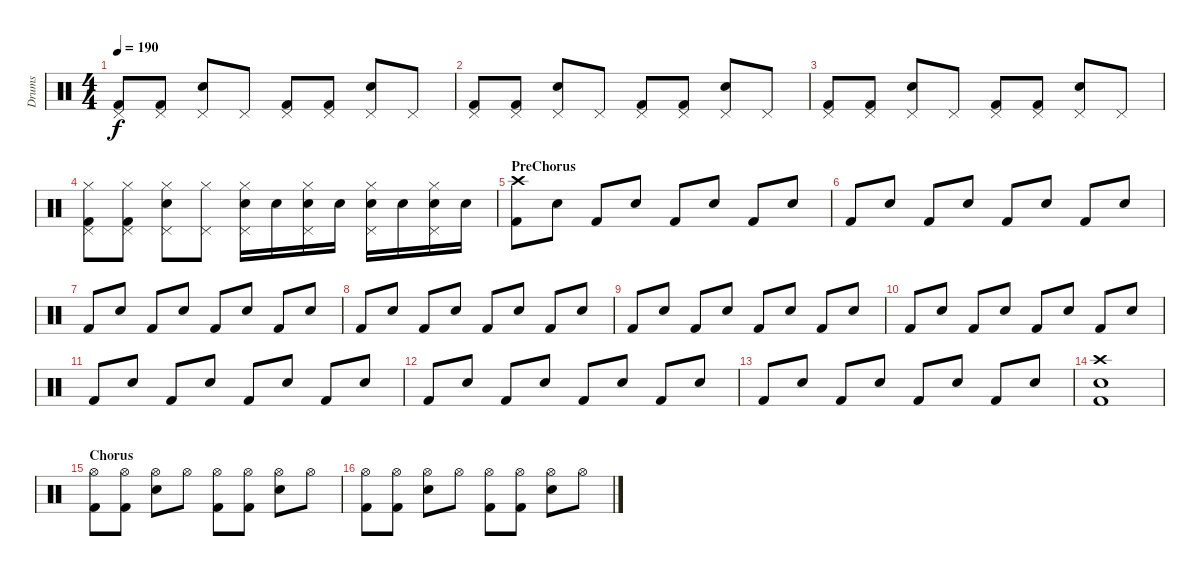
\track ("Drums" "Drums") {instrument percussion}
\staff {score}
\articulation defaults
\ts (4 4)
\tempo 190
\clef neutral
\ks c
("Pedal Hi-Hat (hit)" "Kick (hit) 2").8{dy f} ("Pedal Hi-Hat (hit)" "Kick (hit) 2").8 ("Pedal Hi-Hat (hit)" "Snare (hit) 2").8 "Pedal Hi-Hat (hit)".8 ("Pedal Hi-Hat (hit)" "Kick (hit) 2").8 ("Pedal Hi-Hat (hit)" "Kick (hit) 2").8 ("Pedal Hi-Hat (hit)" "Snare (hit) 2").8 "Pedal Hi-Hat (hit)".8 |
("Pedal Hi-Hat (hit)" "Kick (hit) 2").8 ("Pedal Hi-Hat (hit)" "Kick (hit) 2").8 ("Pedal Hi-Hat (hit)" "Snare (hit) 2").8 "Pedal Hi-Hat (hit)".8 ("Pedal Hi-Hat (hit)" "Kick (hit) 2").8 ("Pedal Hi-Hat (hit)" "Kick (hit) 2").8 ("Pedal Hi-Hat (hit)" "Snare (hit) 2").8 "Pedal Hi-Hat (hit)".8 |
("Pedal Hi-Hat (hit)" "Kick (hit) 2").8 ("Pedal Hi-Hat (hit)" "Kick (hit) 2").8 ("Pedal Hi-Hat (hit)" "Snare (hit) 2").8 "Pedal Hi-Hat (hit)".8 ("Pedal Hi-Hat (hit)" "Kick (hit) 2").8 ("Pedal Hi-Hat (hit)" "Kick (hit) 2").8 ("Pedal Hi-Hat (hit)" "Snare (hit) 2").8 "Pedal Hi-Hat (hit)".8 |
("Pedal Hi-Hat (hit)" "Hi-Hat (closed)" "Kick (hit) 2").8 ("Pedal Hi-Hat (hit)" "Hi-Hat (closed)" "Kick (hit) 2").8 ("Pedal Hi-Hat (hit)" "Hi-Hat (closed)" "Snare (hit) 2").8 ("Pedal Hi-Hat (hit)" "Hi-Hat (closed)").8 ("Pedal Hi-Hat (hit)" "Hi-Hat (closed)" "Snare (hit) 2").16 "Snare (hit) 2".16 ("Pedal Hi-Hat (hit)" "Hi-Hat (closed)" "Snare (hit) 2").16 "Snare (hit) 2".16 ("Pedal Hi-Hat (hit)" "Hi-Hat (closed)" "Snare (hit) 2").16 "Snare (hit) 2".16 ("Pedal Hi-Hat (hit)" "Hi-Hat (closed)" "Snare (hit) 2").16 "Snare (hit) 2".16 |
\section ("" "PreChorus")
("Crash high (hit)" "Kick (hit) 2").8 "Snare (hit) 2".8 "Kick (hit) 2".8 "Snare (hit) 2".8 "Kick (hit) 2".8 "Snare (hit) 2".8 "Kick (hit) 2".8 "Snare (hit) 2".8 |
"Kick (hit) 2".8 "Snare (hit) 2".8 "Kick (hit) 2".8 "Snare (hit) 2".8 "Kick (hit) 2".8 "Snare (hit) 2".8 "Kick (hit) 2".8 "Snare (hit) 2".8 |
"Kick (hit) 2".8 "Snare (hit) 2".8 "Kick (hit) 2".8 "Snare (hit) 2".8 "Kick (hit) 2".8 "Snare (hit) 2".8 "Kick (hit) 2".8 "Snare (hit) 2".8 |
"Kick (hit) 2".8 "Snare (hit) 2".8 "Kick (hit) 2".8 "Snare (hit) 2".8 "Kick (hit) 2".8 "Snare (hit) 2".8 "Kick (hit) 2".8 "Snare (hit) 2".8 |
"Kick (hit) 2".8 "Snare (hit) 2".8 "Kick (hit) 2".8 "Snare (hit) 2".8 "Kick (hit) 2".8 "Snare (hit) 2".8 "Kick (hit) 2".8 "Snare (hit) 2".8 |
"Kick (hit) 2".8 "Snare (hit) 2".8 "Kick (hit) 2".8 "Snare (hit) 2".8 "Kick (hit) 2".8 "Snare (hit) 2".8 "Kick (hit) 2".8 "Snare (hit) 2".8 |
"Kick (hit) 2".8 "Snare (hit) 2".8 "Kick (hit) 2".8 "Snare (hit) 2".8 "Kick (hit) 2".8 "Snare (hit) 2".8 "Kick (hit) 2".8 "Snare (hit) 2".8 |
"Kick (hit) 2".8 "Snare (hit) 2".8 "Kick (hit) 2".8 "Snare (hit) 2".8 "Kick (hit) 2".8 "Snare (hit) 2".8 "Kick (hit) 2".8 "Snare (hit) 2".8 |
"Kick (hit) 2".8 "Snare (hit) 2".8 "Kick (hit) 2".8 "Snare (hit) 2".8 "Kick (hit) 2".8 "Snare (hit) 2".8 "Kick (hit) 2".8 "Snare (hit) 2".8 |
("Crash high (hit)" "Snare (hit) 2" "Kick (hit) 2").1 |
\section ("" "Chorus")
("Hi-Hat (open)" "Kick (hit) 2").8 ("Hi-Hat (open)" "Kick (hit) 2").8 ("Hi-Hat (open)" "Snare (hit) 2").8 "Hi-Hat (open)".8 ("Hi-Hat (open)" "Kick (hit) 2").8 ("Hi-Hat (open)" "Kick (hit) 2").8 ("Hi-Hat (open)" "Snare (hit) 2").8 "Hi-Hat (open)".8 |
("Hi-Hat (open)" "Kick (hit) 2").8 ("Hi-Hat (open)" "Kick (hit) 2").8 ("Hi-Hat (open)" "Snare (hit) 2").8 "Hi-Hat (open)".8 ("Hi-Hat (open)" "Kick (hit) 2").8 ("Hi-Hat (open)" "Kick (hit) 2").8 ("Hi-Hat (open)" "Snare (hit) 2").8 "Hi-Hat (open)".8
